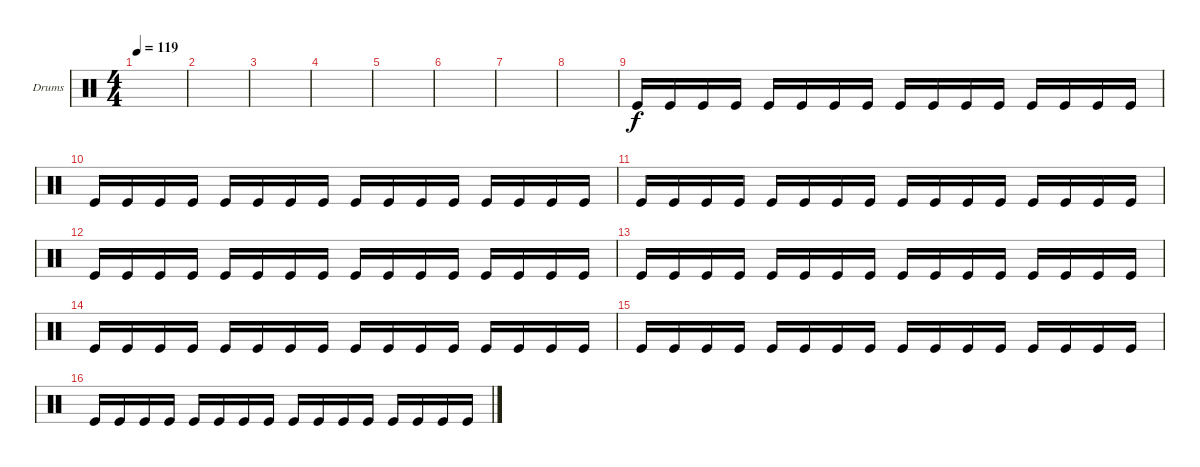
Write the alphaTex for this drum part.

\defaultSystemsLayout 4
\bracketExtendMode groupsimilarinstruments
\firstSystemTrackNameOrientation horizontal
\otherSystemsTrackNameOrientation horizontal
\track ("Kick (hit)" "Drums") {instrument percussion}
\staff {score}
\articulation defaults
\ts (4 4)
\tempo 119
\clef neutral
\scale
0.472222
\ks c
|
\scale
0.263889 |
\scale
0.263889 |
\scale
0.333333 |
\scale
0.333333 |
\scale
0.333333 |
\scale
0.333333 |
\scale
0.333333 |
\scale
0.333333 "Kick (hit)".16 "Kick (hit)".16 "Kick (hit)".16 "Kick (hit)".16 "Kick (hit)".16 "Kick (hit)".16 "Kick (hit)".16 "Kick (hit)".16 "Kick (hit)".16 "Kick (hit)".16 "Kick (hit)".16 "Kick (hit)".16 "Kick (hit)".16 "Kick (hit)".16 "Kick (hit)".16 "Kick (hit)".16 |
\scale
0.333333 "Kick (hit)".16 "Kick (hit)".16 "Kick (hit)".16 "Kick (hit)".16 "Kick (hit)".16 "Kick (hit)".16 "Kick (hit)".16 "Kick (hit)".16 "Kick (hit)".16 "Kick (hit)".16 "Kick (hit)".16 "Kick (hit)".16 "Kick (hit)".16 "Kick (hit)".16 "Kick (hit)".16 "Kick (hit)".16 |
\scale
0.333333 "Kick (hit)".16 "Kick (hit)".16 "Kick (hit)".16 "Kick (hit)".16 "Kick (hit)".16 "Kick (hit)".16 "Kick (hit)".16 "Kick (hit)".16 "Kick (hit)".16 "Kick (hit)".16 "Kick (hit)".16 "Kick (hit)".16 "Kick (hit)".16 "Kick (hit)".16 "Kick (hit)".16 "Kick (hit)".16 |
\scale
0.333333 "Kick (hit)".16 "Kick (hit)".16 "Kick (hit)".16 "Kick (hit)".16 "Kick (hit)".16 "Kick (hit)".16 "Kick (hit)".16 "Kick (hit)".16 "Kick (hit)".16 "Kick (hit)".16 "Kick (hit)".16 "Kick (hit)".16 "Kick (hit)".16 "Kick (hit)".16 "Kick (hit)".16 "Kick (hit)".16 |
\scale
0.333333 "Kick (hit)".16 "Kick (hit)".16 "Kick (hit)".16 "Kick (hit)".16 "Kick (hit)".16 "Kick (hit)".16 "Kick (hit)".16 "Kick (hit)".16 "Kick (hit)".16 "Kick (hit)".16 "Kick (hit)".16 "Kick (hit)".16 "Kick (hit)".16 "Kick (hit)".16 "Kick (hit)".16 "Kick (hit)".16 |
\scale
0.333333 "Kick (hit)".16 "Kick (hit)".16 "Kick (hit)".16 "Kick (hit)".16 "Kick (hit)".16 "Kick (hit)".16 "Kick (hit)".16 "Kick (hit)".16 "Kick (hit)".16 "Kick (hit)".16 "Kick (hit)".16 "Kick (hit)".16 "Kick (hit)".16 "Kick (hit)".16 "Kick (hit)".16 "Kick (hit)".16 |
\scale
0.333333 "Kick (hit)".16 "Kick (hit)".16 "Kick (hit)".16 "Kick (hit)".16 "Kick (hit)".16 "Kick (hit)".16 "Kick (hit)".16 "Kick (hit)".16 "Kick (hit)".16 "Kick (hit)".16 "Kick (hit)".16 "Kick (hit)".16 "Kick (hit)".16 "Kick (hit)".16 "Kick (hit)".16 "Kick (hit)".16 |
\scale
0.333333 "Kick (hit)".16 "Kick (hit)".16 "Kick (hit)".16 "Kick (hit)".16 "Kick (hit)".16 "Kick (hit)".16 "Kick (hit)".16 "Kick (hit)".16 "Kick (hit)".16 "Kick (hit)".16 "Kick (hit)".16 "Kick (hit)".16 "Kick (hit)".16 "Kick (hit)".16 "Kick (hit)".16 "Kick (hit)".16
